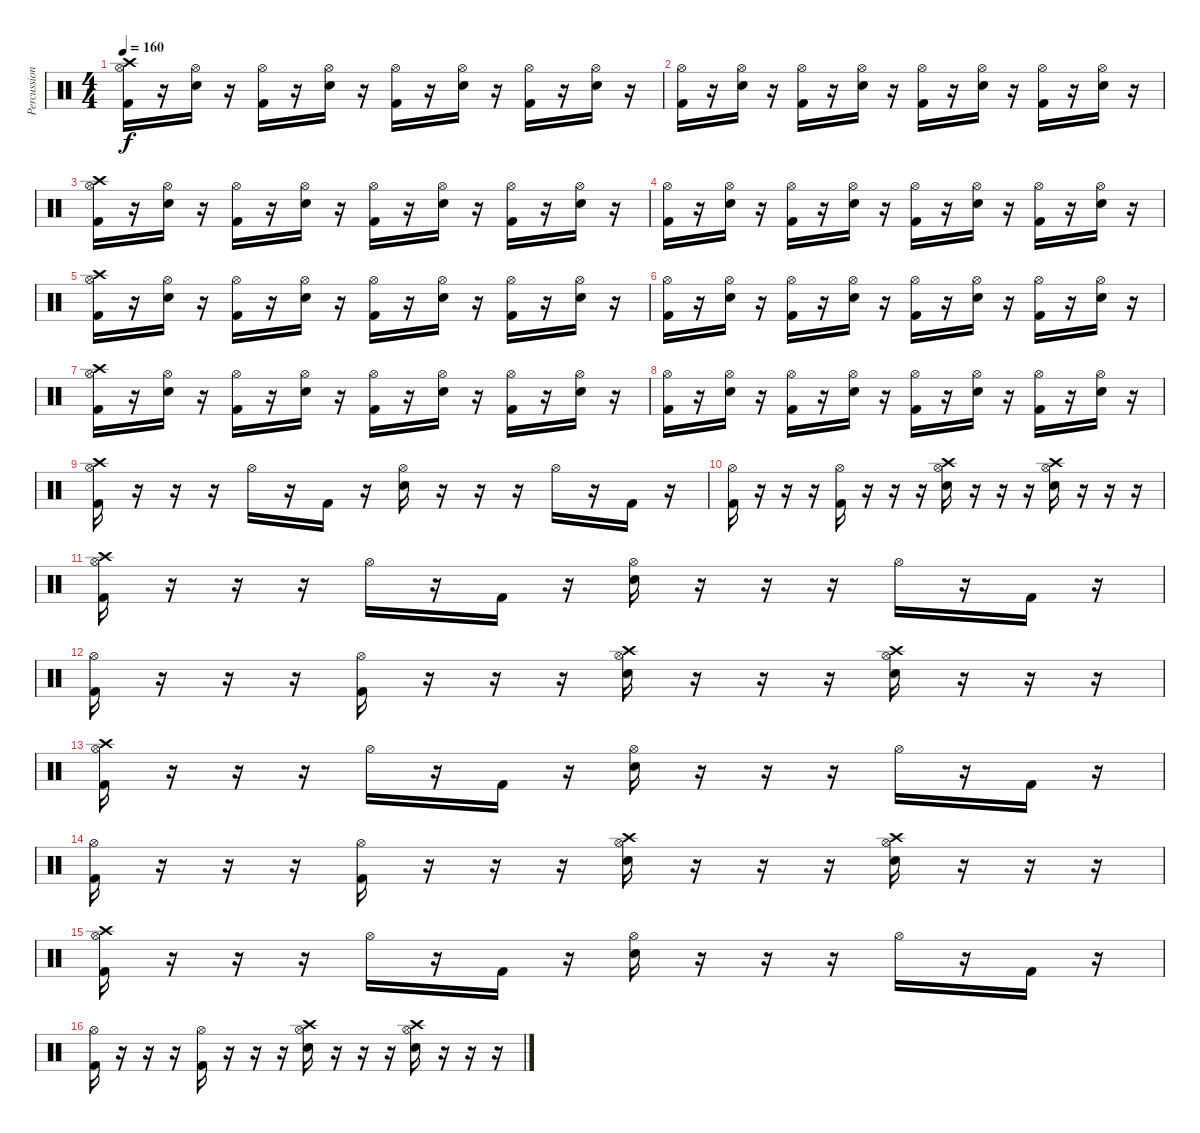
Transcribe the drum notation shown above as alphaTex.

\track ("Percussion" "Percussion") {instrument percussion}
\staff {score}
\articulation defaults
\ts (4 4)
\tempo 160
\clef neutral
\ks c
("Kick (hit) 2" "Hi-Hat (open)" "Crash high (hit)").16{dy f} r.16 ("Electric Snare (hit)" "Hi-Hat (open)").16 r.16 ("Kick (hit) 2" "Hi-Hat (open)").16 r.16 ("Electric Snare (hit)" "Hi-Hat (open)").16 r.16 ("Kick (hit) 2" "Hi-Hat (open)").16 r.16 ("Electric Snare (hit)" "Hi-Hat (open)").16 r.16 ("Kick (hit) 2" "Hi-Hat (open)").16 r.16 ("Electric Snare (hit)" "Hi-Hat (open)").16 r.16 |
("Kick (hit) 2" "Hi-Hat (open)").16 r.16 ("Electric Snare (hit)" "Hi-Hat (open)").16 r.16 ("Kick (hit) 2" "Hi-Hat (open)").16 r.16 ("Electric Snare (hit)" "Hi-Hat (open)").16 r.16 ("Kick (hit) 2" "Hi-Hat (open)").16 r.16 ("Electric Snare (hit)" "Hi-Hat (open)").16 r.16 ("Kick (hit) 2" "Hi-Hat (open)").16 r.16 ("Electric Snare (hit)" "Hi-Hat (open)").16 r.16 |
("Kick (hit) 2" "Hi-Hat (open)" "Crash high (hit)").16 r.16 ("Electric Snare (hit)" "Hi-Hat (open)").16 r.16 ("Kick (hit) 2" "Hi-Hat (open)").16 r.16 ("Electric Snare (hit)" "Hi-Hat (open)").16 r.16 ("Kick (hit) 2" "Hi-Hat (open)").16 r.16 ("Electric Snare (hit)" "Hi-Hat (open)").16 r.16 ("Kick (hit) 2" "Hi-Hat (open)").16 r.16 ("Electric Snare (hit)" "Hi-Hat (open)").16 r.16 |
("Kick (hit) 2" "Hi-Hat (open)").16 r.16 ("Electric Snare (hit)" "Hi-Hat (open)").16 r.16 ("Kick (hit) 2" "Hi-Hat (open)").16 r.16 ("Electric Snare (hit)" "Hi-Hat (open)").16 r.16 ("Kick (hit) 2" "Hi-Hat (open)").16 r.16 ("Electric Snare (hit)" "Hi-Hat (open)").16 r.16 ("Kick (hit) 2" "Hi-Hat (open)").16 r.16 ("Electric Snare (hit)" "Hi-Hat (open)").16 r.16 |
("Kick (hit) 2" "Hi-Hat (open)" "Crash high (hit)").16 r.16 ("Electric Snare (hit)" "Hi-Hat (open)").16 r.16 ("Kick (hit) 2" "Hi-Hat (open)").16 r.16 ("Electric Snare (hit)" "Hi-Hat (open)").16 r.16 ("Kick (hit) 2" "Hi-Hat (open)").16 r.16 ("Electric Snare (hit)" "Hi-Hat (open)").16 r.16 ("Kick (hit) 2" "Hi-Hat (open)").16 r.16 ("Electric Snare (hit)" "Hi-Hat (open)").16 r.16 |
("Kick (hit) 2" "Hi-Hat (open)").16 r.16 ("Electric Snare (hit)" "Hi-Hat (open)").16 r.16 ("Kick (hit) 2" "Hi-Hat (open)").16 r.16 ("Electric Snare (hit)" "Hi-Hat (open)").16 r.16 ("Kick (hit) 2" "Hi-Hat (open)").16 r.16 ("Electric Snare (hit)" "Hi-Hat (open)").16 r.16 ("Kick (hit) 2" "Hi-Hat (open)").16 r.16 ("Electric Snare (hit)" "Hi-Hat (open)").16 r.16 |
("Kick (hit) 2" "Hi-Hat (open)" "Crash high (hit)").16 r.16 ("Electric Snare (hit)" "Hi-Hat (open)").16 r.16 ("Kick (hit) 2" "Hi-Hat (open)").16 r.16 ("Electric Snare (hit)" "Hi-Hat (open)").16 r.16 ("Kick (hit) 2" "Hi-Hat (open)").16 r.16 ("Electric Snare (hit)" "Hi-Hat (open)").16 r.16 ("Kick (hit) 2" "Hi-Hat (open)").16 r.16 ("Electric Snare (hit)" "Hi-Hat (open)").16 r.16 |
("Kick (hit) 2" "Hi-Hat (open)").16 r.16 ("Electric Snare (hit)" "Hi-Hat (open)").16 r.16 ("Kick (hit) 2" "Hi-Hat (open)").16 r.16 ("Electric Snare (hit)" "Hi-Hat (open)").16 r.16 ("Kick (hit) 2" "Hi-Hat (open)").16 r.16 ("Electric Snare (hit)" "Hi-Hat (open)").16 r.16 ("Kick (hit) 2" "Hi-Hat (open)").16 r.16 ("Electric Snare (hit)" "Hi-Hat (open)").16 r.16 |
("Kick (hit) 2" "Hi-Hat (open)" "Crash high (hit)").16 r.16 r.16 r.16 "Hi-Hat (open)".16 r.16 "Kick (hit) 2".16 r.16 ("Electric Snare (hit)" "Hi-Hat (open)").16 r.16 r.16 r.16 "Hi-Hat (open)".16 r.16 "Kick (hit) 2".16 r.16 |
("Kick (hit) 2" "Hi-Hat (open)").16 r.16 r.16 r.16 ("Kick (hit) 2" "Hi-Hat (open)").16 r.16 r.16 r.16 ("Electric Snare (hit)" "Hi-Hat (open)" "Crash high (hit)").16 r.16 r.16 r.16 ("Electric Snare (hit)" "Hi-Hat (open)" "Crash high (hit)").16 r.16 r.16 r.16 |
("Kick (hit) 2" "Hi-Hat (open)" "Crash high (hit)").16 r.16 r.16 r.16 "Hi-Hat (open)".16 r.16 "Kick (hit) 2".16 r.16 ("Electric Snare (hit)" "Hi-Hat (open)").16 r.16 r.16 r.16 "Hi-Hat (open)".16 r.16 "Kick (hit) 2".16 r.16 |
("Kick (hit) 2" "Hi-Hat (open)").16 r.16 r.16 r.16 ("Kick (hit) 2" "Hi-Hat (open)").16 r.16 r.16 r.16 ("Electric Snare (hit)" "Hi-Hat (open)" "Crash high (hit)").16 r.16 r.16 r.16 ("Electric Snare (hit)" "Hi-Hat (open)" "Crash high (hit)").16 r.16 r.16 r.16 |
("Kick (hit) 2" "Hi-Hat (open)" "Crash high (hit)").16 r.16 r.16 r.16 "Hi-Hat (open)".16 r.16 "Kick (hit) 2".16 r.16 ("Electric Snare (hit)" "Hi-Hat (open)").16 r.16 r.16 r.16 "Hi-Hat (open)".16 r.16 "Kick (hit) 2".16 r.16 |
("Kick (hit) 2" "Hi-Hat (open)").16 r.16 r.16 r.16 ("Kick (hit) 2" "Hi-Hat (open)").16 r.16 r.16 r.16 ("Electric Snare (hit)" "Hi-Hat (open)" "Crash high (hit)").16 r.16 r.16 r.16 ("Electric Snare (hit)" "Hi-Hat (open)" "Crash high (hit)").16 r.16 r.16 r.16 |
("Kick (hit) 2" "Hi-Hat (open)" "Crash high (hit)").16 r.16 r.16 r.16 "Hi-Hat (open)".16 r.16 "Kick (hit) 2".16 r.16 ("Electric Snare (hit)" "Hi-Hat (open)").16 r.16 r.16 r.16 "Hi-Hat (open)".16 r.16 "Kick (hit) 2".16 r.16 |
("Kick (hit) 2" "Hi-Hat (open)").16 r.16 r.16 r.16 ("Kick (hit) 2" "Hi-Hat (open)").16 r.16 r.16 r.16 ("Electric Snare (hit)" "Hi-Hat (open)" "Crash high (hit)").16 r.16 r.16 r.16 ("Electric Snare (hit)" "Hi-Hat (open)" "Crash high (hit)").16 r.16 r.16 r.16
